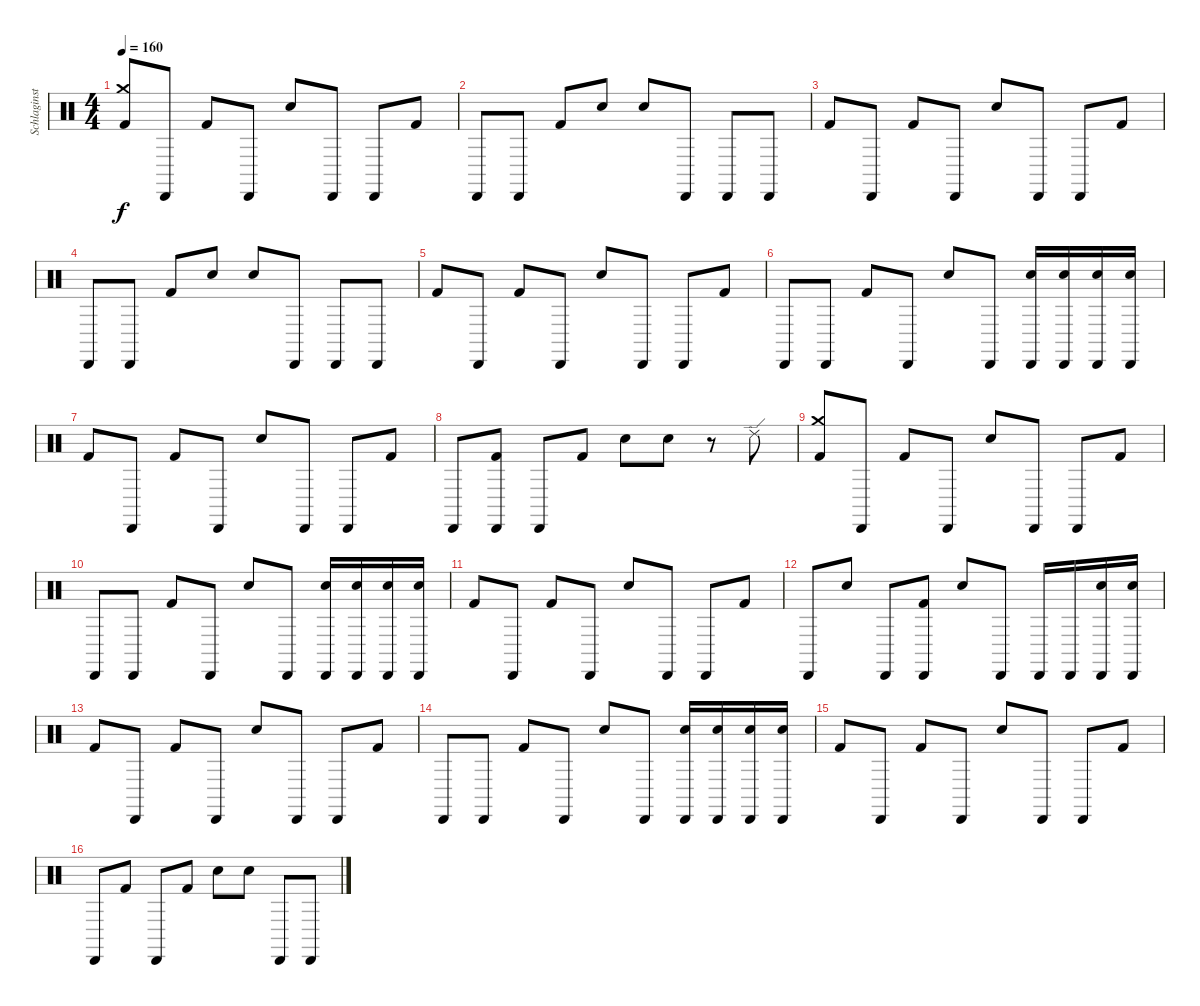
\track ("Schlaginstrumente - Auswahl" "Schlaginst") {instrument percussion}
\staff {score}
\articulation defaults
\ts (4 4)
\tempo 160
\clef neutral
\ks c
("Crash medium (hit)" "Kick (hit) 2").8{dy f} "Cabasa (hit)".8 "Kick (hit) 2".8 "Cabasa (hit)".8 "Snare (hit) 2".8 "Cabasa (hit)".8 "Cabasa (hit)".8 "Kick (hit) 2".8 |
"Cabasa (hit)".8 "Cabasa (hit)".8 "Kick (hit) 2".8 "Snare (hit) 2".8 "Snare (hit) 2".8 "Cabasa (hit)".8 "Cabasa (hit)".8 "Cabasa (hit)".8 |
"Kick (hit) 2".8 "Cabasa (hit)".8 "Kick (hit) 2".8 "Cabasa (hit)".8 "Snare (hit) 2".8 "Cabasa (hit)".8 "Cabasa (hit)".8 "Kick (hit) 2".8 |
"Cabasa (hit)".8 "Cabasa (hit)".8 "Kick (hit) 2".8 "Snare (hit) 2".8 "Snare (hit) 2".8 "Cabasa (hit)".8 "Cabasa (hit)".8 "Cabasa (hit)".8 |
"Kick (hit) 2".8 "Cabasa (hit)".8 "Kick (hit) 2".8 "Cabasa (hit)".8 "Snare (hit) 2".8 "Cabasa (hit)".8 "Cabasa (hit)".8 "Kick (hit) 2".8 |
"Cabasa (hit)".8 "Cabasa (hit)".8 "Kick (hit) 2".8 "Cabasa (hit)".8 "Snare (hit) 2".8 "Cabasa (hit)".8 ("Cabasa (hit)" "Snare (hit) 2").16 ("Cabasa (hit)" "Snare (hit) 2").16 ("Cabasa (hit)" "Snare (hit) 2").16 ("Cabasa (hit)" "Snare (hit) 2").16 |
"Kick (hit) 2".8 "Cabasa (hit)".8 "Kick (hit) 2".8 "Cabasa (hit)".8 "Snare (hit) 2".8 "Cabasa (hit)".8 "Cabasa (hit)".8 "Kick (hit) 2".8 |
"Cabasa (hit)".8 ("Cabasa (hit)" "Kick (hit) 2").8 "Cabasa (hit)".8 "Kick (hit) 2".8 "Snare (hit) 2".8 "Snare (hit) 2".8 r.8 "Ride (edge) 2".8 |
("Crash medium (hit)" "Kick (hit) 2").8 "Cabasa (hit)".8 "Kick (hit) 2".8 "Cabasa (hit)".8 "Snare (hit) 2".8 "Cabasa (hit)".8 "Cabasa (hit)".8 "Kick (hit) 2".8 |
"Cabasa (hit)".8 "Cabasa (hit)".8 "Kick (hit) 2".8 "Cabasa (hit)".8 "Snare (hit) 2".8 "Cabasa (hit)".8 ("Cabasa (hit)" "Snare (hit) 2").16 ("Cabasa (hit)" "Snare (hit) 2").16 ("Cabasa (hit)" "Snare (hit) 2").16 ("Cabasa (hit)" "Snare (hit) 2").16 |
"Kick (hit) 2".8 "Cabasa (hit)".8 "Kick (hit) 2".8 "Cabasa (hit)".8 "Snare (hit) 2".8 "Cabasa (hit)".8 "Cabasa (hit)".8 "Kick (hit) 2".8 |
"Cabasa (hit)".8 "Snare (hit) 2".8 "Cabasa (hit)".8 ("Cabasa (hit)" "Kick (hit) 2").8 "Snare (hit) 2".8 "Cabasa (hit)".8 "Cabasa (hit)".16 "Cabasa (hit)".16 ("Cabasa (hit)" "Snare (hit) 2").16 ("Cabasa (hit)" "Snare (hit) 2").16 |
"Kick (hit) 2".8 "Cabasa (hit)".8 "Kick (hit) 2".8 "Cabasa (hit)".8 "Snare (hit) 2".8 "Cabasa (hit)".8 "Cabasa (hit)".8 "Kick (hit) 2".8 |
"Cabasa (hit)".8 "Cabasa (hit)".8 "Kick (hit) 2".8 "Cabasa (hit)".8 "Snare (hit) 2".8 "Cabasa (hit)".8 ("Cabasa (hit)" "Snare (hit) 2").16 ("Cabasa (hit)" "Snare (hit) 2").16 ("Cabasa (hit)" "Snare (hit) 2").16 ("Cabasa (hit)" "Snare (hit) 2").16 |
"Kick (hit) 2".8 "Cabasa (hit)".8 "Kick (hit) 2".8 "Cabasa (hit)".8 "Snare (hit) 2".8 "Cabasa (hit)".8 "Cabasa (hit)".8 "Kick (hit) 2".8 |
"Cabasa (hit)".8 "Kick (hit) 2".8 "Cabasa (hit)".8 "Kick (hit) 2".8 "Snare (hit) 2".8 "Snare (hit) 2".8 "Cabasa (hit)".8 "Cabasa (hit)".8
